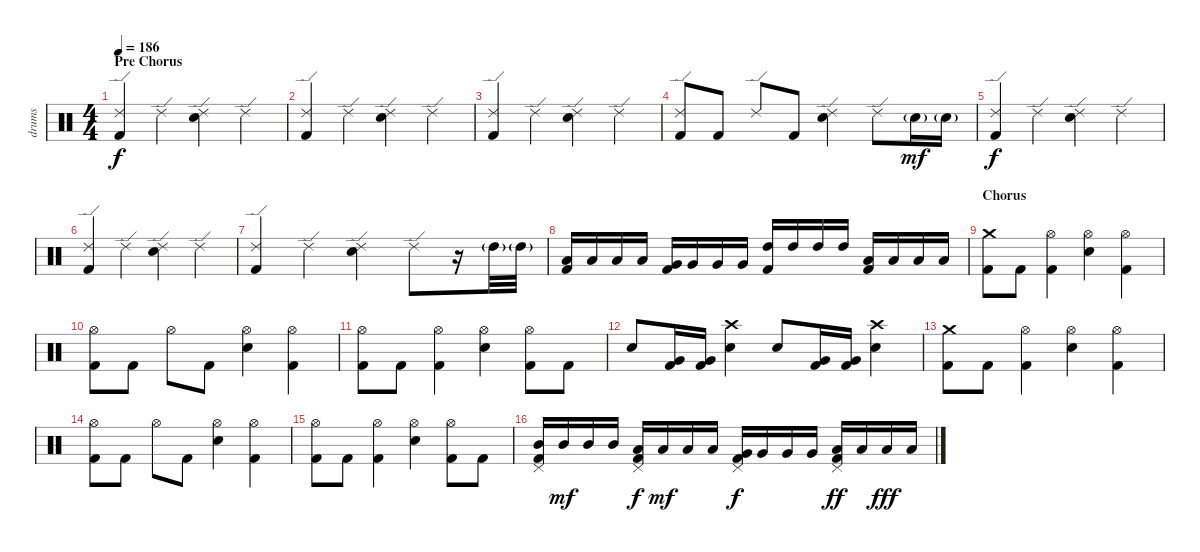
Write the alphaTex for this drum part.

\track ("drums" "drums") {instrument percussion}
\staff {score}
\articulation defaults
\ts (4 4)
\section ("" "Pre Chorus")
\tempo 186
\clef neutral
\ks c
("Ride (edge) 2" "Kick (hit) 2").4{dy f} "Ride (edge) 2".4 ("Ride (edge) 2" "Electric Snare (hit)").4 "Ride (edge) 2".4 |
("Ride (edge) 2" "Kick (hit) 2").4 "Ride (edge) 2".4 ("Ride (edge) 2" "Electric Snare (hit)").4 "Ride (edge) 2".4 |
("Ride (edge) 2" "Kick (hit) 2").4 "Ride (edge) 2".4 ("Ride (edge) 2" "Electric Snare (hit)").4 "Ride (edge) 2".4 |
("Ride (edge) 2" "Kick (hit) 2").8 "Kick (hit) 2".8 "Ride (edge) 2".8 "Kick (hit) 2".8 ("Ride (edge) 2" "Electric Snare (hit)").4 "Ride (edge) 2".8 "Electric Snare (hit)"{g}.16{dy mf} "Electric Snare (hit)"{g}.16 |
("Ride (edge) 2" "Kick (hit) 2").4{dy f} "Ride (edge) 2".4 ("Ride (edge) 2" "Electric Snare (hit)").4 "Ride (edge) 2".4 |
("Ride (edge) 2" "Kick (hit) 2").4 "Ride (edge) 2".4 ("Ride (edge) 2" "Electric Snare (hit)").4 "Ride (edge) 2".4 |
("Ride (edge) 2" "Kick (hit) 2").4 "Ride (edge) 2".4 ("Ride (edge) 2" "Electric Snare (hit)").4 "Ride (edge) 2".8 r.16 "High Tom (hit)"{g}.32 "High Tom (hit)"{g}.32 |
("Low Tom (hit)" "Kick (hit) 2").16 "Low Tom (hit)".16 "Low Tom (hit)".16 "Low Tom (hit)".16 ("Very Low Tom (hit)" "Kick (hit) 2").16 "Very Low Tom (hit)".16 "Very Low Tom (hit)".16 "Very Low Tom (hit)".16 ("High Tom (hit)" "Kick (hit) 2").16 "High Tom (hit)".16 "High Tom (hit)".16 "High Tom (hit)".16 ("Low Tom (hit)" "Kick (hit) 2").16 "Low Tom (hit)".16 "Low Tom (hit)".16 "Low Tom (hit)".16 |
\section ("" "Chorus")
("Crash medium (hit)" "Kick (hit) 2").8 "Kick (hit) 2".8 ("Hi-Hat (open)" "Kick (hit) 2").4 ("Hi-Hat (open)" "Electric Snare (hit)").4 ("Hi-Hat (open)" "Kick (hit) 2").4 |
("Hi-Hat (open)" "Kick (hit) 2").8 "Kick (hit) 2".8 "Hi-Hat (open)".8 "Kick (hit) 2".8 ("Hi-Hat (open)" "Electric Snare (hit)").4 ("Hi-Hat (open)" "Kick (hit) 2").4 |
("Hi-Hat (open)" "Kick (hit) 2").8 "Kick (hit) 2".8 ("Hi-Hat (open)" "Kick (hit) 2").4 ("Hi-Hat (open)" "Electric Snare (hit)").4 ("Hi-Hat (open)" "Kick (hit) 2").8 "Kick (hit) 2".8 |
"Electric Snare (hit)".8 ("Very Low Tom (hit)" "Kick (hit) 2").16 ("Very Low Tom (hit)" "Kick (hit) 2").16 ("Crash high (hit)" "Electric Snare (hit)").4 "Electric Snare (hit)".8 ("Very Low Tom (hit)" "Kick (hit) 2").16 ("Very Low Tom (hit)" "Kick (hit) 2").16 ("Crash high (hit)" "Electric Snare (hit)").4 |
("Crash medium (hit)" "Kick (hit) 2").8 "Kick (hit) 2".8 ("Hi-Hat (open)" "Kick (hit) 2").4 ("Hi-Hat (open)" "Electric Snare (hit)").4 ("Hi-Hat (open)" "Kick (hit) 2").4 |
("Hi-Hat (open)" "Kick (hit) 2").8 "Kick (hit) 2".8 "Hi-Hat (open)".8 "Kick (hit) 2".8 ("Hi-Hat (open)" "Electric Snare (hit)").4 ("Hi-Hat (open)" "Kick (hit) 2").4 |
("Hi-Hat (open)" "Kick (hit) 2").8 "Kick (hit) 2".8 ("Hi-Hat (open)" "Kick (hit) 2").4 ("Hi-Hat (open)" "Electric Snare (hit)").4 ("Hi-Hat (open)" "Kick (hit) 2").8 "Kick (hit) 2".8 |
("Pedal Hi-Hat (hit)" "Mid Tom (hit)" "Kick (hit) 2").16 "Mid Tom (hit)".16{dy mf} "Mid Tom (hit)".16 "Mid Tom (hit)".16 ("Pedal Hi-Hat (hit)" "Low Tom (hit)" "Kick (hit) 2").16{dy f} "Low Tom (hit)".16{dy mf} "Low Tom (hit)".16 "Low Tom (hit)".16 ("Pedal Hi-Hat (hit)" "Very Low Tom (hit)" "Kick (hit) 2").16{dy f} "Very Low Tom (hit)".16 "Very Low Tom (hit)".16 "Very Low Tom (hit)".16 ("Pedal Hi-Hat (hit)" "Low Floor Tom (hit)" "Kick (hit) 2").16{dy ff} "Low Floor Tom (hit)".16 "Low Floor Tom (hit)".16{dy fff} "Low Floor Tom (hit)".16
